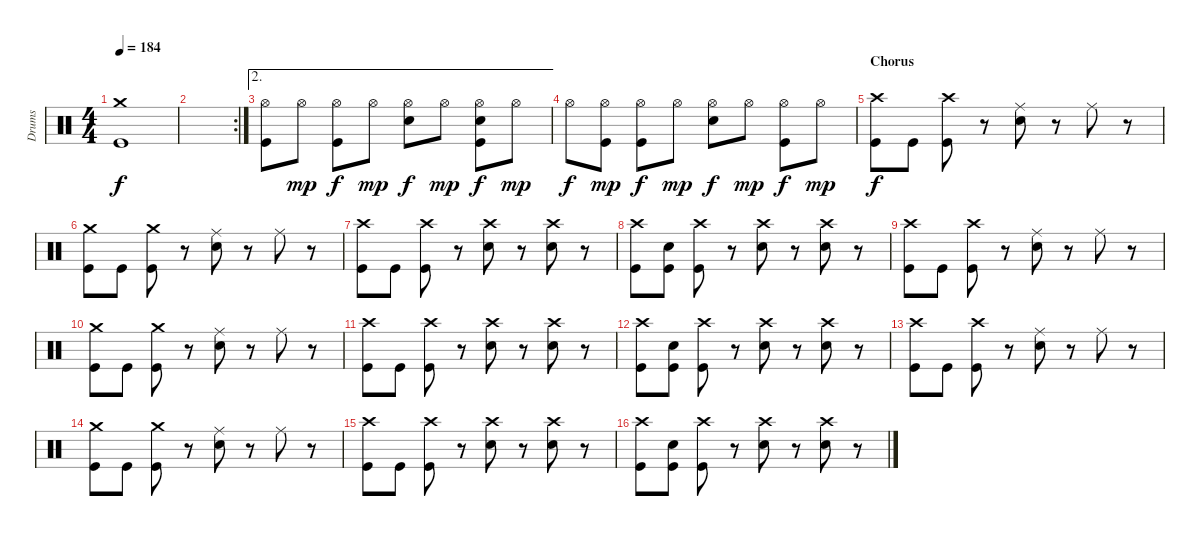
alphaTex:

\track ("Drums" "Drums") {instrument percussion}
\staff {score}
\articulation defaults
\ts (4 4)
\tempo 184
\clef neutral
\ks c
("Crash medium (hit)" "Kick (hit)").1{dy f} |
\rc 2
|
\ae 2
("Hi-Hat (open)" "Kick (hit)").8 "Hi-Hat (open)".8{dy mp} ("Hi-Hat (open)" "Kick (hit)").8{dy f} "Hi-Hat (open)".8{dy mp} ("Hi-Hat (open)" "Electric Snare (hit)").8{dy f} "Hi-Hat (open)".8{dy mp} ("Hi-Hat (open)" "Electric Snare (hit)" "Kick (hit)").8{dy f} "Hi-Hat (open)".8{dy mp} |
"Hi-Hat (open)".8{dy f} ("Hi-Hat (open)" "Kick (hit)").8{dy mp} ("Hi-Hat (open)" "Kick (hit)").8{dy f} "Hi-Hat (open)".8{dy mp} ("Hi-Hat (open)" "Electric Snare (hit)").8{dy f} "Hi-Hat (open)".8{dy mp} ("Hi-Hat (open)" "Kick (hit)").8{dy f} "Hi-Hat (open)".8{dy mp} |
\section ("" "Chorus")
("Crash high (hit)" "Kick (hit)").8{dy f} "Kick (hit)".8 ("Crash high (hit)" "Kick (hit)").8 r.8 ("Ride (middle)" "Electric Snare (hit)").8 r.8 "Ride (middle)".8 r.8 |
("Crash medium (hit)" "Kick (hit)").8 "Kick (hit)".8 ("Crash medium (hit)" "Kick (hit)").8 r.8 ("Ride (middle)" "Electric Snare (hit)").8 r.8 "Ride (middle)".8 r.8 |
("Crash high (hit)" "Kick (hit)").8 "Kick (hit)".8 ("Crash high (hit)" "Kick (hit)").8 r.8 ("Crash high (hit)" "Electric Snare (hit)").8 r.8 ("Crash high (hit)" "Electric Snare (hit)").8 r.8 |
("Crash high (hit)" "Kick (hit)").8 ("Electric Snare (hit)" "Kick (hit)").8 ("Crash high (hit)" "Kick (hit)").8 r.8 ("Crash high (hit)" "Electric Snare (hit)").8 r.8 ("Crash high (hit)" "Electric Snare (hit)").8 r.8 |
("Crash high (hit)" "Kick (hit)").8 "Kick (hit)".8 ("Crash high (hit)" "Kick (hit)").8 r.8 ("Ride (middle)" "Electric Snare (hit)").8 r.8 "Ride (middle)".8 r.8 |
("Crash medium (hit)" "Kick (hit)").8 "Kick (hit)".8 ("Crash medium (hit)" "Kick (hit)").8 r.8 ("Ride (middle)" "Electric Snare (hit)").8 r.8 "Ride (middle)".8 r.8 |
("Crash high (hit)" "Kick (hit)").8 "Kick (hit)".8 ("Crash high (hit)" "Kick (hit)").8 r.8 ("Crash high (hit)" "Electric Snare (hit)").8 r.8 ("Crash high (hit)" "Electric Snare (hit)").8 r.8 |
("Crash high (hit)" "Kick (hit)").8 ("Electric Snare (hit)" "Kick (hit)").8 ("Crash high (hit)" "Kick (hit)").8 r.8 ("Crash high (hit)" "Electric Snare (hit)").8 r.8 ("Crash high (hit)" "Electric Snare (hit)").8 r.8 |
("Crash high (hit)" "Kick (hit)").8 "Kick (hit)".8 ("Crash high (hit)" "Kick (hit)").8 r.8 ("Ride (middle)" "Electric Snare (hit)").8 r.8 "Ride (middle)".8 r.8 |
("Crash medium (hit)" "Kick (hit)").8 "Kick (hit)".8 ("Crash medium (hit)" "Kick (hit)").8 r.8 ("Ride (middle)" "Electric Snare (hit)").8 r.8 "Ride (middle)".8 r.8 |
("Crash high (hit)" "Kick (hit)").8 "Kick (hit)".8 ("Crash high (hit)" "Kick (hit)").8 r.8 ("Crash high (hit)" "Electric Snare (hit)").8 r.8 ("Crash high (hit)" "Electric Snare (hit)").8 r.8 |
("Crash high (hit)" "Kick (hit)").8 ("Electric Snare (hit)" "Kick (hit)").8 ("Crash high (hit)" "Kick (hit)").8 r.8 ("Crash high (hit)" "Electric Snare (hit)").8 r.8 ("Crash high (hit)" "Electric Snare (hit)").8 r.8
